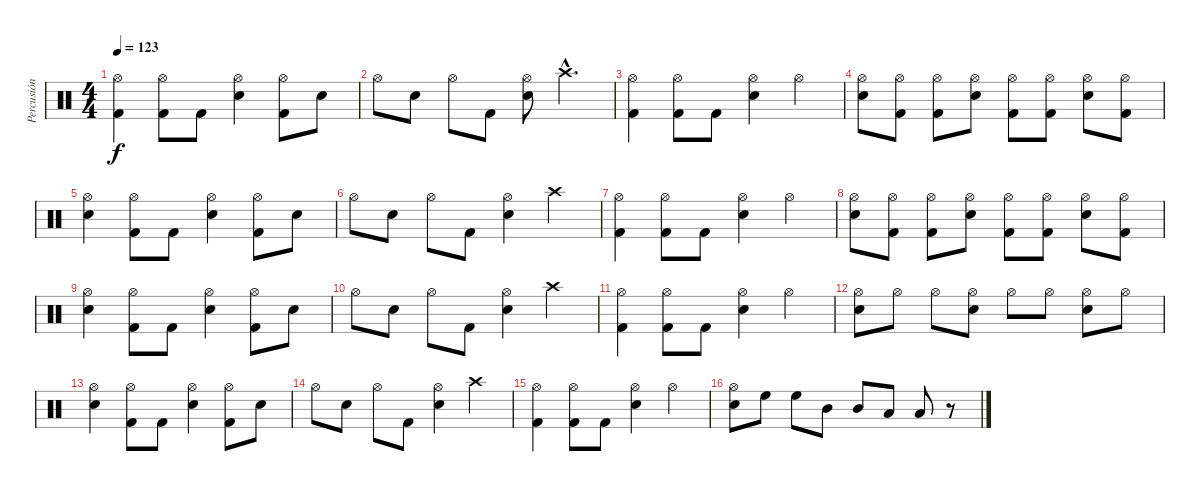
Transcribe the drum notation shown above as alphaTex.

\track ("Percusión" "Percusión") {instrument percussion}
\staff {score}
\articulation defaults
\ts (4 4)
\tempo 123
\clef neutral
\ks c
("Hi-Hat (open)" "Kick (hit) 2").4{dy f} ("Hi-Hat (open)" "Kick (hit) 2").8 "Kick (hit) 2".8 ("Hi-Hat (open)" "Snare (hit) 2").4 ("Hi-Hat (open)" "Kick (hit) 2").8 "Snare (hit) 2".8 |
"Hi-Hat (open)".8 "Snare (hit) 2".8 "Hi-Hat (open)".8 "Kick (hit) 2".8 ("Hi-Hat (open)" "Snare (hit) 2").8 "Crash high (hit)"{hac}.4{d} |
("Hi-Hat (open)" "Kick (hit) 2").4 ("Hi-Hat (open)" "Kick (hit) 2").8 "Kick (hit) 2".8 ("Hi-Hat (open)" "Snare (hit) 2").4 "Hi-Hat (open)".4 |
("Hi-Hat (open)" "Snare (hit) 2").8 ("Hi-Hat (open)" "Kick (hit) 2").8 ("Hi-Hat (open)" "Kick (hit) 2").8 ("Hi-Hat (open)" "Snare (hit) 2").8 ("Hi-Hat (open)" "Kick (hit) 2").8 ("Hi-Hat (open)" "Kick (hit) 2").8 ("Hi-Hat (open)" "Snare (hit) 2").8 ("Hi-Hat (open)" "Kick (hit) 2").8 |
("Hi-Hat (open)" "Snare (hit) 2").4 ("Hi-Hat (open)" "Kick (hit) 2").8 "Kick (hit) 2".8 ("Hi-Hat (open)" "Snare (hit) 2").4 ("Hi-Hat (open)" "Kick (hit) 2").8 "Snare (hit) 2".8 |
"Hi-Hat (open)".8 "Snare (hit) 2".8 "Hi-Hat (open)".8 "Kick (hit) 2".8 ("Hi-Hat (open)" "Snare (hit) 2").4 "Crash high (hit)".4 |
("Hi-Hat (open)" "Kick (hit) 2").4 ("Hi-Hat (open)" "Kick (hit) 2").8 "Kick (hit) 2".8 ("Hi-Hat (open)" "Snare (hit) 2").4 "Hi-Hat (open)".4 |
("Hi-Hat (open)" "Snare (hit) 2").8 ("Hi-Hat (open)" "Kick (hit) 2").8 ("Hi-Hat (open)" "Kick (hit) 2").8 ("Hi-Hat (open)" "Snare (hit) 2").8 ("Hi-Hat (open)" "Kick (hit) 2").8 ("Hi-Hat (open)" "Kick (hit) 2").8 ("Hi-Hat (open)" "Snare (hit) 2").8 ("Hi-Hat (open)" "Kick (hit) 2").8 |
("Hi-Hat (open)" "Snare (hit) 2").4 ("Hi-Hat (open)" "Kick (hit) 2").8 "Kick (hit) 2".8 ("Hi-Hat (open)" "Snare (hit) 2").4 ("Hi-Hat (open)" "Kick (hit) 2").8 "Snare (hit) 2".8 |
"Hi-Hat (open)".8 "Snare (hit) 2".8 "Hi-Hat (open)".8 "Kick (hit) 2".8 ("Hi-Hat (open)" "Snare (hit) 2").4 "Crash high (hit)".4 |
("Hi-Hat (open)" "Kick (hit) 2").4 ("Hi-Hat (open)" "Kick (hit) 2").8 "Kick (hit) 2".8 ("Hi-Hat (open)" "Snare (hit) 2").4 "Hi-Hat (open)".4 |
("Hi-Hat (open)" "Snare (hit) 2").8 "Hi-Hat (open)".8 "Hi-Hat (open)".8 ("Hi-Hat (open)" "Snare (hit) 2").8 "Hi-Hat (open)".8 "Hi-Hat (open)".8 ("Hi-Hat (open)" "Snare (hit) 2").8 "Hi-Hat (open)".8 |
("Hi-Hat (open)" "Snare (hit) 2").4 ("Hi-Hat (open)" "Kick (hit) 2").8 "Kick (hit) 2".8 ("Hi-Hat (open)" "Snare (hit) 2").4 ("Hi-Hat (open)" "Kick (hit) 2").8 "Snare (hit) 2".8 |
"Hi-Hat (open)".8 "Snare (hit) 2".8 "Hi-Hat (open)".8 "Kick (hit) 2".8 ("Hi-Hat (open)" "Snare (hit) 2").4 "Crash high (hit)".4 |
("Hi-Hat (open)" "Kick (hit) 2").4 ("Hi-Hat (open)" "Kick (hit) 2").8 "Kick (hit) 2".8 ("Hi-Hat (open)" "Snare (hit) 2").4 "Hi-Hat (open)".4 |
("Hi-Hat (open)" "Snare (hit) 2").8 "High Floor Tom (hit)".8 "High Floor Tom (hit)".8 "Mid Tom (hit)".8 "Mid Tom (hit)".8 "Low Tom (hit)".8 "Low Tom (hit)".8 r.8
